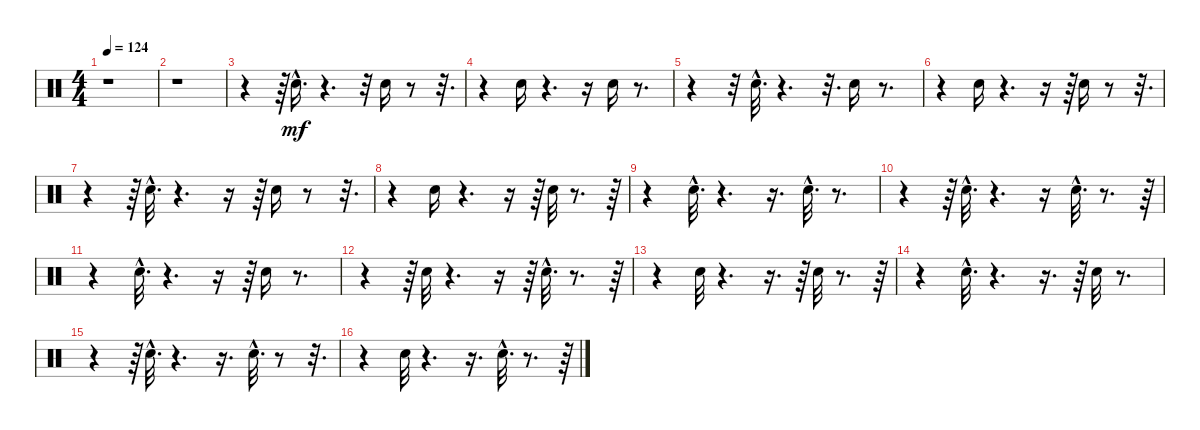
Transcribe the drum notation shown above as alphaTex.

\track "" {instrument percussion}
\staff {score}
\articulation defaults
\ts (4 4)
\tempo 124
\clef neutral
\ks c
r.1{dy mf} |
r.1 |
r.4 r.64 "Electric Snare (hit)"{hac}.16{d} r.4{d} r.32 "Electric Snare (hit)".16 r.8 r.32{d} |
r.4 "Electric Snare (hit)".16 r.4{d} r.16 "Electric Snare (hit)".16 r.8{d} |
r.4 r.32 "Electric Snare (hit)"{hac}.32{d} r.4{d} r.32{d} "Electric Snare (hit)".16 r.8{d} |
r.4 "Electric Snare (hit)".16 r.4{d} r.16 r.64 "Electric Snare (hit)".16 r.8 r.32{d} |
r.4 r.64 "Electric Snare (hit)"{hac}.32{d} r.4{d} r.16 r.64 "Electric Snare (hit)".16 r.8 r.32{d} |
r.4 "Electric Snare (hit)".16 r.4{d} r.16 r.64 "Electric Snare (hit)".32 r.8{d} r.64 |
r.4 "Electric Snare (hit)"{hac}.32{d} r.4{d} r.16{d} "Electric Snare (hit)"{hac}.32{d} r.8{d} |
r.4 r.64 "Electric Snare (hit)"{hac}.32{d} r.4{d} r.16 "Electric Snare (hit)"{hac}.32{d} r.8{d} r.64 |
r.4 "Electric Snare (hit)"{hac}.32{d} r.4{d} r.16 r.64 "Electric Snare (hit)".16 r.8{d} |
r.4 r.64 "Electric Snare (hit)".32 r.4{d} r.16 r.64 "Electric Snare (hit)"{hac}.32{d} r.8{d} r.64 |
r.4 "Electric Snare (hit)".32 r.4{d} r.16{d} r.64 "Electric Snare (hit)".32 r.8{d} r.64 |
r.4 "Electric Snare (hit)"{hac}.32{d} r.4{d} r.16{d} r.64 "Electric Snare (hit)".32 r.8{d} |
r.4 r.64 "Electric Snare (hit)"{hac}.32{d} r.4{d} r.16{d} "Electric Snare (hit)"{hac}.32{d} r.8 r.32{d} |
r.4 "Electric Snare (hit)".32 r.4{d} r.16{d} "Electric Snare (hit)"{hac}.32{d} r.8{d} r.64
